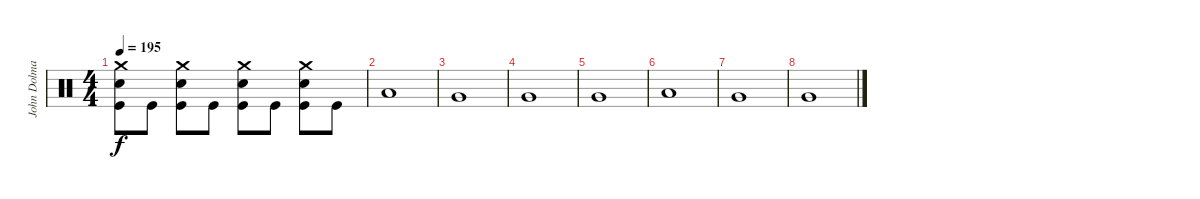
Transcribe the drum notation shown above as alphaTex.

\track ("John Dolmayan" "John Dolma") {instrument percussion}
\staff {score}
\articulation defaults
\ts (4 4)
\tempo 195
\clef neutral
\ks c
("Crash medium (hit)" "Snare (hit) 2" "Kick (hit)").8{dy f} "Kick (hit)".8 ("Crash medium (hit)" "Snare (hit) 2" "Kick (hit)").8 "Kick (hit)".8 ("Crash medium (hit)" "Snare (hit) 2" "Kick (hit)").8 "Kick (hit)".8 ("Crash medium (hit)" "Snare (hit) 2" "Kick (hit)").8 "Kick (hit)".8 |
"Low Floor Tom (hit)".1 |
"Very Low Tom (hit)".1 |
"Very Low Tom (hit)".1 |
"Very Low Tom (hit)".1 |
"Low Floor Tom (hit)".1 |
"Very Low Tom (hit)".1 |
"Very Low Tom (hit)".1
